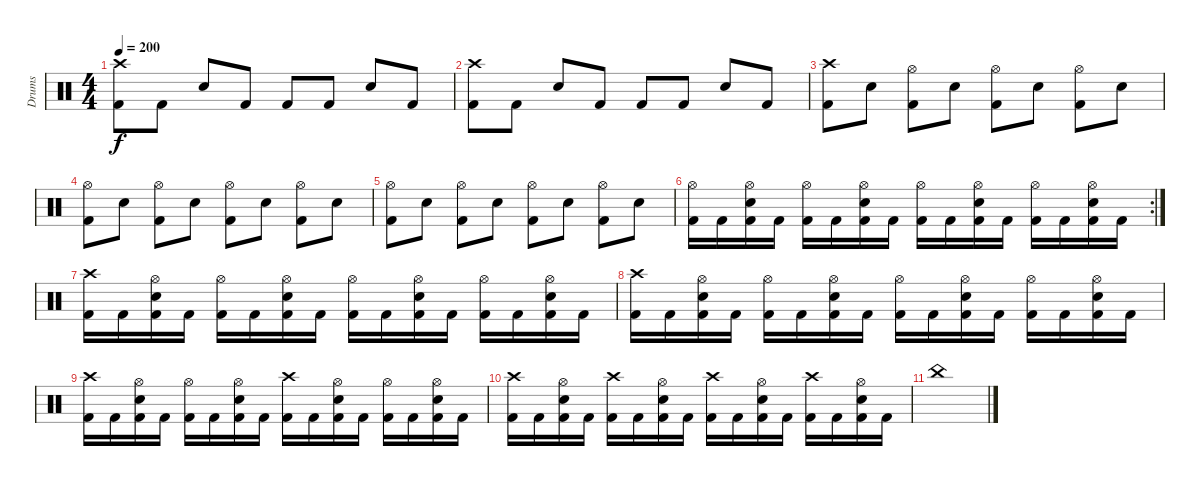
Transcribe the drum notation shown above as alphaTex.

\track ("Drums" "Drums") {instrument percussion}
\staff {score}
\articulation defaults
\ts (4 4)
\tempo 200
\clef neutral
\ks c
("Crash high (hit)" "Kick (hit) 2").8{dy f} "Kick (hit) 2".8 "Electric Snare (hit)".8 "Kick (hit) 2".8 "Kick (hit) 2".8 "Kick (hit) 2".8 "Electric Snare (hit)".8 "Kick (hit) 2".8 |
("Crash high (hit)" "Kick (hit) 2").8 "Kick (hit) 2".8 "Electric Snare (hit)".8 "Kick (hit) 2".8 "Kick (hit) 2".8 "Kick (hit) 2".8 "Electric Snare (hit)".8 "Kick (hit) 2".8 |
("Crash high (hit)" "Kick (hit) 2").8 "Electric Snare (hit)".8 ("Hi-Hat (open)" "Kick (hit) 2").8 "Electric Snare (hit)".8 ("Hi-Hat (open)" "Kick (hit) 2").8 "Electric Snare (hit)".8 ("Hi-Hat (open)" "Kick (hit) 2").8 "Electric Snare (hit)".8 |
("Hi-Hat (open)" "Kick (hit) 2").8 "Electric Snare (hit)".8 ("Hi-Hat (open)" "Kick (hit) 2").8 "Electric Snare (hit)".8 ("Hi-Hat (open)" "Kick (hit) 2").8 "Electric Snare (hit)".8 ("Hi-Hat (open)" "Kick (hit) 2").8 "Electric Snare (hit)".8 |
("Hi-Hat (open)" "Kick (hit) 2").8 "Electric Snare (hit)".8 ("Hi-Hat (open)" "Kick (hit) 2").8 "Electric Snare (hit)".8 ("Hi-Hat (open)" "Kick (hit) 2").8 "Electric Snare (hit)".8 ("Hi-Hat (open)" "Kick (hit) 2").8 "Electric Snare (hit)".8 |
\rc 2
("Hi-Hat (open)" "Kick (hit) 2").16 "Kick (hit) 2".16 ("Hi-Hat (open)" "Electric Snare (hit)" "Kick (hit) 2").16 "Kick (hit) 2".16 ("Hi-Hat (open)" "Kick (hit) 2").16 "Kick (hit) 2".16 ("Hi-Hat (open)" "Electric Snare (hit)" "Kick (hit) 2").16 "Kick (hit) 2".16 ("Hi-Hat (open)" "Kick (hit) 2").16 "Kick (hit) 2".16 ("Hi-Hat (open)" "Electric Snare (hit)" "Kick (hit) 2").16 "Kick (hit) 2".16 ("Hi-Hat (open)" "Kick (hit) 2").16 "Kick (hit) 2".16 ("Hi-Hat (open)" "Electric Snare (hit)" "Kick (hit) 2").16 "Kick (hit) 2".16 |
("Crash high (hit)" "Kick (hit) 2").16 "Kick (hit) 2".16 ("Hi-Hat (open)" "Electric Snare (hit)" "Kick (hit) 2").16 "Kick (hit) 2".16 ("Hi-Hat (open)" "Kick (hit) 2").16 "Kick (hit) 2".16 ("Hi-Hat (open)" "Electric Snare (hit)" "Kick (hit) 2").16 "Kick (hit) 2".16 ("Hi-Hat (open)" "Kick (hit) 2").16 "Kick (hit) 2".16 ("Hi-Hat (open)" "Electric Snare (hit)" "Kick (hit) 2").16 "Kick (hit) 2".16 ("Hi-Hat (open)" "Kick (hit) 2").16 "Kick (hit) 2".16 ("Hi-Hat (open)" "Electric Snare (hit)" "Kick (hit) 2").16 "Kick (hit) 2".16 |
("Crash high (hit)" "Kick (hit) 2").16 "Kick (hit) 2".16 ("Hi-Hat (open)" "Electric Snare (hit)" "Kick (hit) 2").16 "Kick (hit) 2".16 ("Hi-Hat (open)" "Kick (hit) 2").16 "Kick (hit) 2".16 ("Hi-Hat (open)" "Electric Snare (hit)" "Kick (hit) 2").16 "Kick (hit) 2".16 ("Hi-Hat (open)" "Kick (hit) 2").16 "Kick (hit) 2".16 ("Hi-Hat (open)" "Electric Snare (hit)" "Kick (hit) 2").16 "Kick (hit) 2".16 ("Hi-Hat (open)" "Kick (hit) 2").16 "Kick (hit) 2".16 ("Hi-Hat (open)" "Electric Snare (hit)" "Kick (hit) 2").16 "Kick (hit) 2".16 |
("Crash high (hit)" "Kick (hit) 2").16 "Kick (hit) 2".16 ("Hi-Hat (open)" "Electric Snare (hit)" "Kick (hit) 2").16 "Kick (hit) 2".16 ("Hi-Hat (open)" "Kick (hit) 2").16 "Kick (hit) 2".16 ("Hi-Hat (open)" "Electric Snare (hit)" "Kick (hit) 2").16 "Kick (hit) 2".16 ("Crash high (hit)" "Kick (hit) 2").16 "Kick (hit) 2".16 ("Hi-Hat (open)" "Electric Snare (hit)" "Kick (hit) 2").16 "Kick (hit) 2".16 ("Hi-Hat (open)" "Kick (hit) 2").16 "Kick (hit) 2".16 ("Hi-Hat (open)" "Electric Snare (hit)" "Kick (hit) 2").16 "Kick (hit) 2".16 |
("Crash high (hit)" "Kick (hit) 2").16 "Kick (hit) 2".16 ("Hi-Hat (open)" "Electric Snare (hit)" "Kick (hit) 2").16 "Kick (hit) 2".16 ("Crash high (hit)" "Kick (hit) 2").16 "Kick (hit) 2".16 ("Hi-Hat (open)" "Electric Snare (hit)" "Kick (hit) 2").16 "Kick (hit) 2".16 ("Crash high (hit)" "Kick (hit) 2").16 "Kick (hit) 2".16 ("Hi-Hat (open)" "Electric Snare (hit)" "Kick (hit) 2").16 "Kick (hit) 2".16 ("Crash high (hit)" "Kick (hit) 2").16 "Kick (hit) 2".16 ("Hi-Hat (open)" "Electric Snare (hit)" "Kick (hit) 2").16 "Kick (hit) 2".16 |
"China (hit)".1
